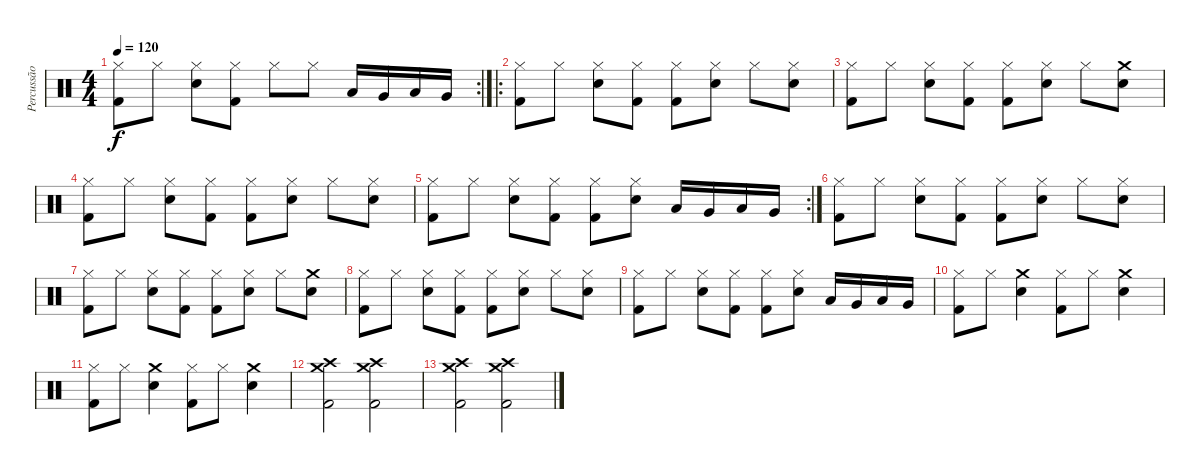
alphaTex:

\track ("Percussão" "Percussão") {instrument percussion}
\staff {score}
\articulation defaults
\rc 2
\ts (4 4)
\tempo 120
\clef neutral
\ks c
("Hi-Hat (closed)" "Kick (hit) 2").8{dy f} "Hi-Hat (closed)".8 ("Hi-Hat (closed)" "Electric Snare (hit)").8 ("Hi-Hat (closed)" "Kick (hit) 2").8 "Hi-Hat (closed)".8 "Hi-Hat (closed)".8 "Low Floor Tom (hit)".16 "Very Low Tom (hit)".16 "Low Floor Tom (hit)".16 "Very Low Tom (hit)".16 |
\ro
("Hi-Hat (closed)" "Kick (hit) 2").8 "Hi-Hat (closed)".8 ("Hi-Hat (closed)" "Electric Snare (hit)").8 ("Hi-Hat (closed)" "Kick (hit) 2").8 ("Hi-Hat (closed)" "Kick (hit) 2").8 ("Hi-Hat (closed)" "Electric Snare (hit)").8 "Hi-Hat (closed)".8 ("Hi-Hat (closed)" "Electric Snare (hit)").8 |
("Hi-Hat (closed)" "Kick (hit) 2").8 "Hi-Hat (closed)".8 ("Hi-Hat (closed)" "Electric Snare (hit)").8 ("Hi-Hat (closed)" "Kick (hit) 2").8 ("Hi-Hat (closed)" "Kick (hit) 2").8 ("Hi-Hat (closed)" "Electric Snare (hit)").8 "Hi-Hat (closed)".8 ("Electric Snare (hit)" "Crash medium (hit)").8 |
("Hi-Hat (closed)" "Kick (hit) 2").8 "Hi-Hat (closed)".8 ("Hi-Hat (closed)" "Electric Snare (hit)").8 ("Hi-Hat (closed)" "Kick (hit) 2").8 ("Hi-Hat (closed)" "Kick (hit) 2").8 ("Hi-Hat (closed)" "Electric Snare (hit)").8 "Hi-Hat (closed)".8 ("Hi-Hat (closed)" "Electric Snare (hit)").8 |
\rc 2
("Hi-Hat (closed)" "Kick (hit) 2").8 "Hi-Hat (closed)".8 ("Hi-Hat (closed)" "Electric Snare (hit)").8 ("Hi-Hat (closed)" "Kick (hit) 2").8 ("Hi-Hat (closed)" "Kick (hit) 2").8 ("Hi-Hat (closed)" "Electric Snare (hit)").8 "Low Floor Tom (hit)".16 "Very Low Tom (hit)".16 "Low Floor Tom (hit)".16 "Very Low Tom (hit)".16 |
("Hi-Hat (closed)" "Kick (hit) 2").8 "Hi-Hat (closed)".8 ("Hi-Hat (closed)" "Electric Snare (hit)").8 ("Hi-Hat (closed)" "Kick (hit) 2").8 ("Hi-Hat (closed)" "Kick (hit) 2").8 ("Hi-Hat (closed)" "Electric Snare (hit)").8 "Hi-Hat (closed)".8 ("Hi-Hat (closed)" "Electric Snare (hit)").8 |
("Hi-Hat (closed)" "Kick (hit) 2").8 "Hi-Hat (closed)".8 ("Hi-Hat (closed)" "Electric Snare (hit)").8 ("Hi-Hat (closed)" "Kick (hit) 2").8 ("Hi-Hat (closed)" "Kick (hit) 2").8 ("Hi-Hat (closed)" "Electric Snare (hit)").8 "Hi-Hat (closed)".8 ("Electric Snare (hit)" "Crash medium (hit)").8 |
("Hi-Hat (closed)" "Kick (hit) 2").8 "Hi-Hat (closed)".8 ("Hi-Hat (closed)" "Electric Snare (hit)").8 ("Hi-Hat (closed)" "Kick (hit) 2").8 ("Hi-Hat (closed)" "Kick (hit) 2").8 ("Hi-Hat (closed)" "Electric Snare (hit)").8 "Hi-Hat (closed)".8 ("Hi-Hat (closed)" "Electric Snare (hit)").8 |
("Hi-Hat (closed)" "Kick (hit) 2").8 "Hi-Hat (closed)".8 ("Hi-Hat (closed)" "Electric Snare (hit)").8 ("Hi-Hat (closed)" "Kick (hit) 2").8 ("Hi-Hat (closed)" "Kick (hit) 2").8 ("Hi-Hat (closed)" "Electric Snare (hit)").8 "Low Floor Tom (hit)".16 "Very Low Tom (hit)".16 "Low Floor Tom (hit)".16 "Very Low Tom (hit)".16 |
("Hi-Hat (closed)" "Kick (hit) 2").8 "Hi-Hat (closed)".8 ("Electric Snare (hit)" "Crash medium (hit)").4 ("Hi-Hat (closed)" "Kick (hit) 2").8 "Hi-Hat (closed)".8 ("Electric Snare (hit)" "Crash medium (hit)").4 |
("Hi-Hat (closed)" "Kick (hit) 2").8 "Hi-Hat (closed)".8 ("Electric Snare (hit)" "Crash medium (hit)").4 ("Hi-Hat (closed)" "Kick (hit) 2").8 "Hi-Hat (closed)".8 ("Electric Snare (hit)" "Crash medium (hit)").4 |
("Crash high (hit)" "Crash medium (hit)" "Kick (hit) 2").2 ("Crash high (hit)" "Crash medium (hit)" "Kick (hit) 2").2 |
("Crash high (hit)" "Crash medium (hit)" "Kick (hit) 2").2 ("Crash high (hit)" "Crash medium (hit)" "Kick (hit) 2").2
